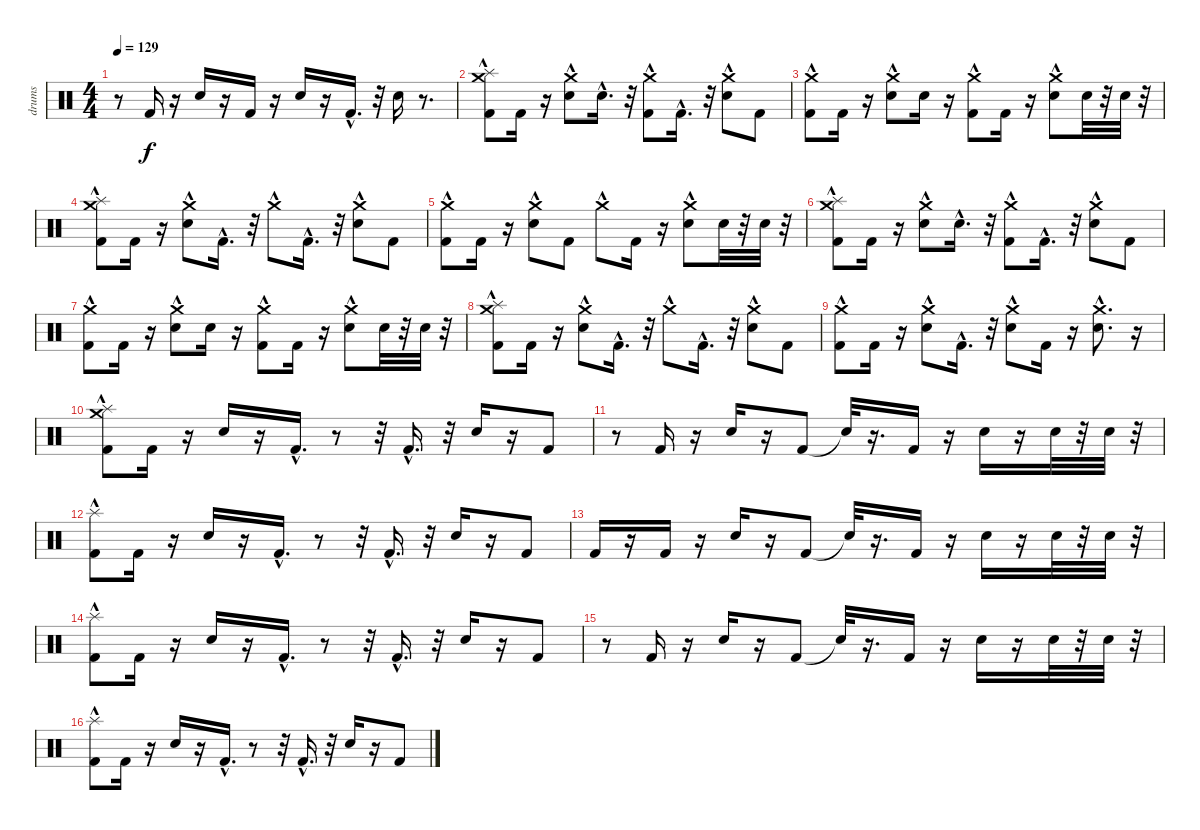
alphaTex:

\track ("drums" "drums") {instrument percussion}
\staff {score}
\articulation defaults
\ts (4 4)
\tempo 129
\clef neutral
\ks c
r.8{dy f} "Kick (hit) 2".16 r.16 "Snare (hit) 2".16 r.16 "Kick (hit) 2".16 r.16 "Snare (hit) 2".16 r.16 "Kick (hit) 2"{hac}.16{d} r.32 "Snare (hit) 2".16 r.8{d} |
("Kick (hit) 2" "Splash (hit)"{hac} "Crash medium (hit)"{hac}).8 "Kick (hit) 2".16 r.16 ("Snare (hit) 2" "Crash medium (hit)"{hac}).8 "Snare (hit) 2"{hac}.16{d} r.32 ("Kick (hit) 2"{hac} "Crash medium (hit)"{hac}).8 "Kick (hit) 2"{hac}.16{d} r.32 ("Snare (hit) 2" "Crash medium (hit)"{hac}).8 "Kick (hit) 2".8 |
("Kick (hit) 2" "Crash medium (hit)"{hac}).8 "Kick (hit) 2".16 r.16 ("Snare (hit) 2" "Crash medium (hit)"{hac}).8 "Snare (hit) 2".16 r.16 ("Kick (hit) 2" "Crash medium (hit)"{hac}).8 "Kick (hit) 2".16 r.16 ("Snare (hit) 2" "Crash medium (hit)"{hac}).8 "Snare (hit) 2".32 r.32 "Snare (hit) 2".32 r.32 |
("Crash medium (hit)"{hac} "Kick (hit) 2" "Splash (hit)"{hac}).8 "Kick (hit) 2".16 r.16 ("Crash medium (hit)"{hac} "Snare (hit) 2").8 "Kick (hit) 2"{hac}.16{d} r.32 "Crash medium (hit)"{hac}.8 "Kick (hit) 2"{hac}.16{d} r.32 ("Crash medium (hit)"{hac} "Snare (hit) 2").8 "Kick (hit) 2".8 |
("Crash medium (hit)"{hac} "Kick (hit) 2").8 "Kick (hit) 2".16 r.16 ("Crash medium (hit)"{hac} "Snare (hit) 2").8 "Kick (hit) 2".8 "Crash medium (hit)"{hac}.8 "Kick (hit) 2".16 r.16 ("Crash medium (hit)"{hac} "Snare (hit) 2").8 "Snare (hit) 2".32 r.32 "Snare (hit) 2".32 r.32 |
("Kick (hit) 2" "Splash (hit)"{hac} "Crash medium (hit)"{hac}).8 "Kick (hit) 2".16 r.16 ("Snare (hit) 2" "Crash medium (hit)"{hac}).8 "Snare (hit) 2"{hac}.16{d} r.32 ("Kick (hit) 2"{hac} "Crash medium (hit)"{hac}).8 "Kick (hit) 2"{hac}.16{d} r.32 ("Snare (hit) 2" "Crash medium (hit)"{hac}).8 "Kick (hit) 2".8 |
("Kick (hit) 2" "Crash medium (hit)"{hac}).8 "Kick (hit) 2".16 r.16 ("Snare (hit) 2" "Crash medium (hit)"{hac}).8 "Snare (hit) 2".16 r.16 ("Kick (hit) 2" "Crash medium (hit)"{hac}).8 "Kick (hit) 2".16 r.16 ("Snare (hit) 2" "Crash medium (hit)"{hac}).8 "Snare (hit) 2".32 r.32 "Snare (hit) 2".32 r.32 |
("Kick (hit) 2" "Splash (hit)"{hac} "Crash medium (hit)"{hac}).8 "Kick (hit) 2".16 r.16 ("Snare (hit) 2" "Crash medium (hit)"{hac}).8 "Kick (hit) 2"{hac}.16{d} r.32 "Crash medium (hit)"{hac}.8 "Kick (hit) 2"{hac}.16{d} r.32 ("Snare (hit) 2" "Crash medium (hit)"{hac}).8 "Kick (hit) 2".8 |
("Kick (hit) 2" "Crash medium (hit)"{hac}).8 "Kick (hit) 2".16 r.16 ("Snare (hit) 2" "Crash medium (hit)"{hac}).8 "Kick (hit) 2"{hac}.16{d} r.32 ("Snare (hit) 2" "Crash medium (hit)"{hac}).8 "Kick (hit) 2".16 r.16 ("Snare (hit) 2" "Crash medium (hit)"{hac}).8{d} r.16 |
("Kick (hit) 2" "Splash (hit)"{hac} "Crash medium (hit)"{hac}).8 "Kick (hit) 2".16 r.16 "Snare (hit) 2".16 r.16 "Kick (hit) 2"{hac}.16{d} r.8 r.32 "Kick (hit) 2"{hac}.16{d} r.32 "Snare (hit) 2".16 r.16 "Kick (hit) 2".8 |
r.8 "Kick (hit) 2".16 r.16 "Snare (hit) 2".16 r.16 "Kick (hit) 2".8 "Snare (hit)"{t}.32 r.16{d} "Kick (hit) 2".16 r.16 "Snare (hit) 2".16 r.16 "Snare (hit) 2".32 r.32 "Snare (hit) 2".32 r.32 |
("Kick (hit) 2" "Splash (hit)"{hac}).8 "Kick (hit) 2".16 r.16 "Snare (hit) 2".16 r.16 "Kick (hit) 2"{hac}.16{d} r.8 r.32 "Kick (hit) 2"{hac}.16{d} r.32 "Snare (hit) 2".16 r.16 "Kick (hit) 2".8 |
"Kick (hit) 2".16 r.16 "Kick (hit) 2".16 r.16 "Snare (hit) 2".16 r.16 "Kick (hit) 2".8 "Snare (hit)"{t}.32 r.16{d} "Kick (hit) 2".16 r.16 "Snare (hit) 2".16 r.16 "Snare (hit) 2".32 r.32 "Snare (hit) 2".32 r.32 |
("Kick (hit) 2" "Splash (hit)"{hac}).8 "Kick (hit) 2".16 r.16 "Snare (hit) 2".16 r.16 "Kick (hit) 2"{hac}.16{d} r.8 r.32 "Kick (hit) 2"{hac}.16{d} r.32 "Snare (hit) 2".16 r.16 "Kick (hit) 2".8 |
r.8 "Kick (hit) 2".16 r.16 "Snare (hit) 2".16 r.16 "Kick (hit) 2".8 "Snare (hit)"{t}.32 r.16{d} "Kick (hit) 2".16 r.16 "Snare (hit) 2".16 r.16 "Snare (hit) 2".32 r.32 "Snare (hit) 2".32 r.32 |
("Kick (hit) 2" "Splash (hit)"{hac}).8 "Kick (hit) 2".16 r.16 "Snare (hit) 2".16 r.16 "Kick (hit) 2"{hac}.16{d} r.8 r.32 "Kick (hit) 2"{hac}.16{d} r.32 "Snare (hit) 2".16 r.16 "Kick (hit) 2".8
